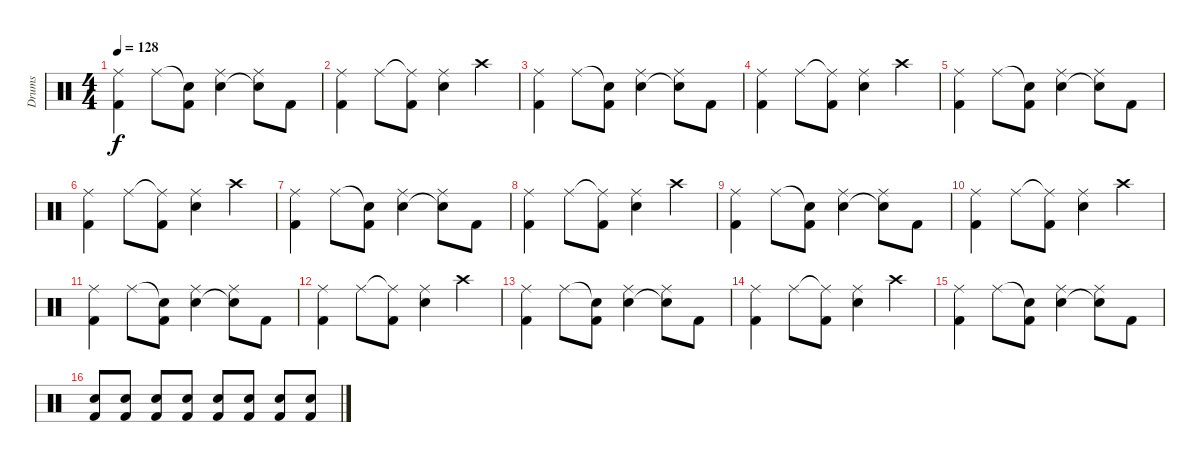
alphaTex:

\track ("Drums" "Drums") {instrument percussion}
\staff {score}
\articulation defaults
\ts (4 4)
\tempo 128
\clef neutral
\ks c
("Ride (middle)" "Kick (hit) 2").4{dy f} "Ride (middle)".8 ("Snare (hit)"{t} "Kick (hit) 2").8 ("Ride (middle)" "Snare (hit) 2").4 ("Ride (middle)" "Snare (hit)"{t}).8 "Kick (hit) 2".8 |
("Ride (middle)" "Kick (hit) 2").4 "Ride (middle)".8 ("Ride (middle)"{t} "Kick (hit) 2").8 ("Ride (middle)" "Snare (hit) 2").4 "Crash high (hit)".4 |
("Ride (middle)" "Kick (hit) 2").4 "Ride (middle)".8 ("Snare (hit)"{t} "Kick (hit) 2").8 ("Ride (middle)" "Snare (hit) 2").4 ("Ride (middle)" "Snare (hit)"{t}).8 "Kick (hit) 2".8 |
("Ride (middle)" "Kick (hit) 2").4 "Ride (middle)".8 ("Ride (middle)"{t} "Kick (hit) 2").8 ("Ride (middle)" "Snare (hit) 2").4 "Crash high (hit)".4 |
("Ride (middle)" "Kick (hit) 2").4 "Ride (middle)".8 ("Snare (hit)"{t} "Kick (hit) 2").8 ("Ride (middle)" "Snare (hit) 2").4 ("Ride (middle)" "Snare (hit)"{t}).8 "Kick (hit) 2".8 |
("Ride (middle)" "Kick (hit) 2").4 "Ride (middle)".8 ("Ride (middle)"{t} "Kick (hit) 2").8 ("Ride (middle)" "Snare (hit) 2").4 "Crash high (hit)".4 |
("Ride (middle)" "Kick (hit) 2").4 "Ride (middle)".8 ("Snare (hit)"{t} "Kick (hit) 2").8 ("Ride (middle)" "Snare (hit) 2").4 ("Ride (middle)" "Snare (hit)"{t}).8 "Kick (hit) 2".8 |
("Ride (middle)" "Kick (hit) 2").4 "Ride (middle)".8 ("Ride (middle)"{t} "Kick (hit) 2").8 ("Ride (middle)" "Snare (hit) 2").4 "Crash high (hit)".4 |
("Ride (middle)" "Kick (hit) 2").4 "Ride (middle)".8 ("Snare (hit)"{t} "Kick (hit) 2").8 ("Ride (middle)" "Snare (hit) 2").4 ("Ride (middle)" "Snare (hit)"{t}).8 "Kick (hit) 2".8 |
("Ride (middle)" "Kick (hit) 2").4 "Ride (middle)".8 ("Ride (middle)"{t} "Kick (hit) 2").8 ("Ride (middle)" "Snare (hit) 2").4 "Crash high (hit)".4 |
("Ride (middle)" "Kick (hit) 2").4 "Ride (middle)".8 ("Snare (hit)"{t} "Kick (hit) 2").8 ("Ride (middle)" "Snare (hit) 2").4 ("Ride (middle)" "Snare (hit)"{t}).8 "Kick (hit) 2".8 |
("Ride (middle)" "Kick (hit) 2").4 "Ride (middle)".8 ("Ride (middle)"{t} "Kick (hit) 2").8 ("Ride (middle)" "Snare (hit) 2").4 "Crash high (hit)".4 |
("Ride (middle)" "Kick (hit) 2").4 "Ride (middle)".8 ("Snare (hit)"{t} "Kick (hit) 2").8 ("Ride (middle)" "Snare (hit) 2").4 ("Ride (middle)" "Snare (hit)"{t}).8 "Kick (hit) 2".8 |
("Ride (middle)" "Kick (hit) 2").4 "Ride (middle)".8 ("Ride (middle)"{t} "Kick (hit) 2").8 ("Ride (middle)" "Snare (hit) 2").4 "Crash high (hit)".4 |
("Ride (middle)" "Kick (hit) 2").4 "Ride (middle)".8 ("Snare (hit)"{t} "Kick (hit) 2").8 ("Ride (middle)" "Snare (hit) 2").4 ("Ride (middle)" "Snare (hit)"{t}).8 "Kick (hit) 2".8 |
("Snare (hit) 2" "Kick (hit) 2").8 ("Snare (hit) 2" "Kick (hit) 2").8 ("Snare (hit) 2" "Kick (hit) 2").8 ("Snare (hit) 2" "Kick (hit) 2").8 ("Snare (hit) 2" "Kick (hit) 2").8 ("Snare (hit) 2" "Kick (hit) 2").8 ("Snare (hit) 2" "Kick (hit) 2").8 ("Snare (hit) 2" "Kick (hit) 2").8
